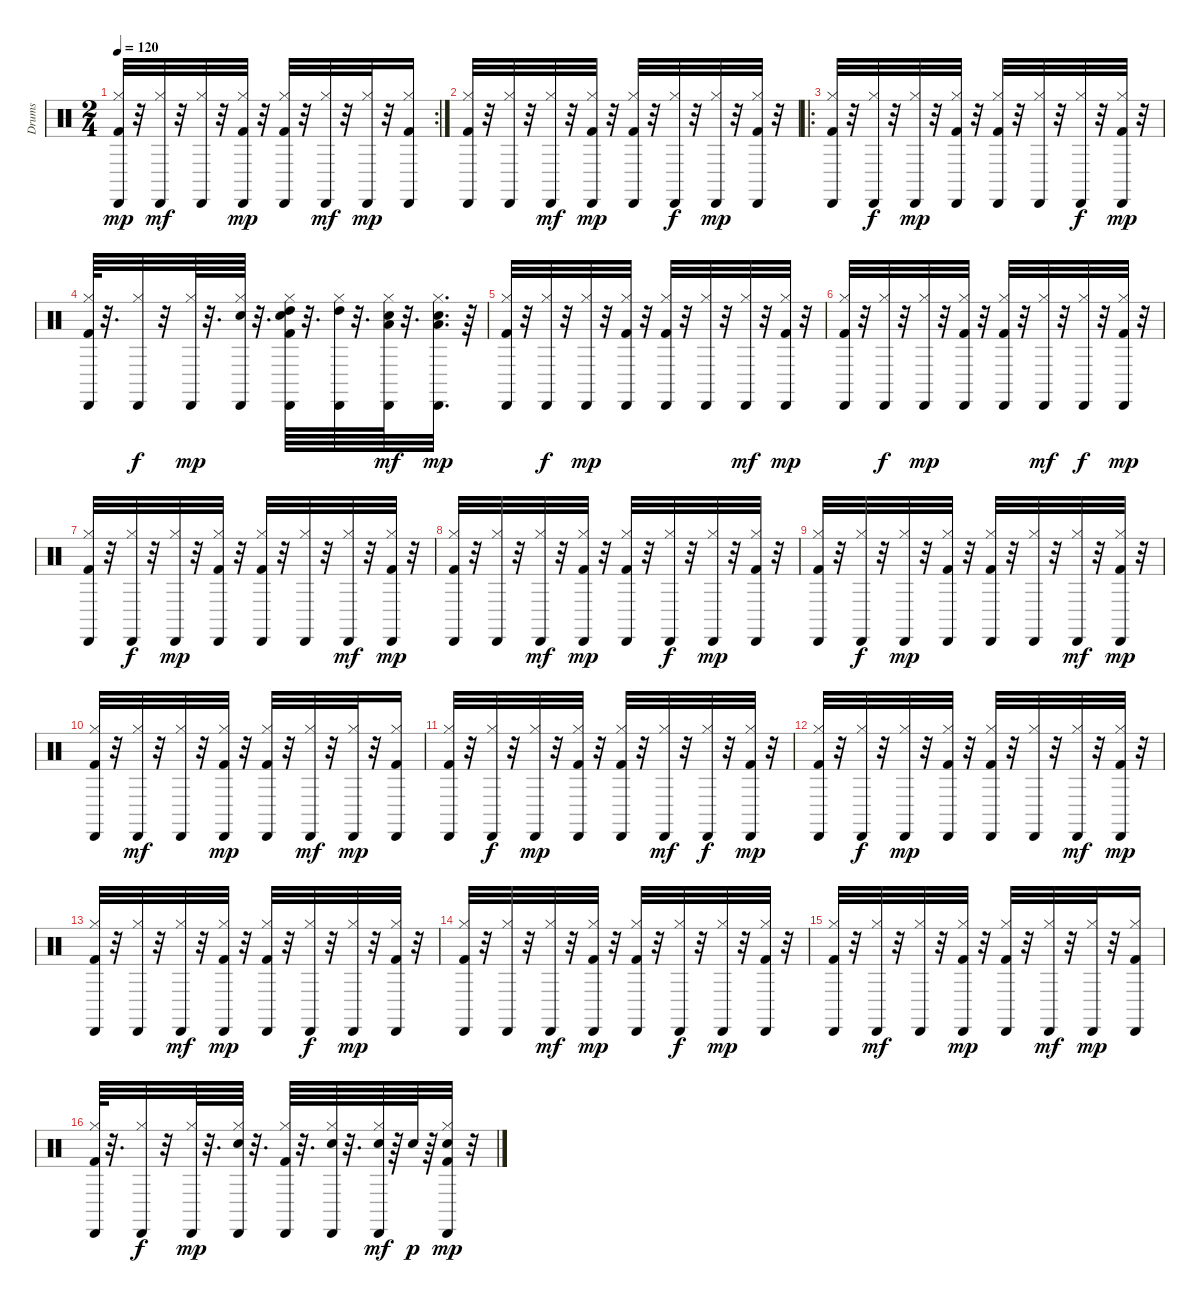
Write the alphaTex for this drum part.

\track ("Drums" "Drums") {instrument percussion}
\staff {score}
\articulation defaults
\rc 2
\ts (2 4)
\tempo 120
\clef neutral
\ks c
("Kick (hit) 2" "Hi-Hat (closed)" "Cabasa (hit)").32{dy mp} r.32 ("Hi-Hat (closed)" "Cabasa (hit)").32{dy mf} r.32 ("Hi-Hat (closed)" "Cabasa (hit)").32 r.32 ("Kick (hit) 2" "Hi-Hat (closed)" "Cabasa (hit)").32{dy mp} r.32 ("Kick (hit) 2" "Hi-Hat (closed)" "Cabasa (hit)").32 r.32 ("Hi-Hat (closed)" "Cabasa (hit)").32{dy mf} r.32 ("Hi-Hat (closed)" "Cabasa (hit)").32{dy mp} r.32 ("Kick (hit) 2" "Hi-Hat (closed)" "Cabasa (hit)").16 |
("Kick (hit) 2" "Hi-Hat (closed)" "Cabasa (hit)").32 r.32 ("Hi-Hat (closed)" "Cabasa (hit)").32 r.32 ("Hi-Hat (closed)" "Cabasa (hit)").32{dy mf} r.32 ("Kick (hit) 2" "Hi-Hat (closed)" "Cabasa (hit)").32{dy mp} r.32 ("Kick (hit) 2" "Hi-Hat (closed)" "Cabasa (hit)").32 r.32 ("Hi-Hat (closed)" "Cabasa (hit)").32{dy f} r.32 ("Hi-Hat (closed)" "Cabasa (hit)").32{dy mp} r.32 ("Kick (hit) 2" "Hi-Hat (closed)" "Cabasa (hit)").32 r.32 |
\ro
("Kick (hit) 2" "Hi-Hat (closed)" "Cabasa (hit)").32 r.32 ("Hi-Hat (closed)" "Cabasa (hit)").32{dy f} r.32 ("Hi-Hat (closed)" "Cabasa (hit)").32{dy mp} r.32 ("Kick (hit) 2" "Hi-Hat (closed)" "Cabasa (hit)").32 r.32 ("Kick (hit) 2" "Hi-Hat (closed)" "Cabasa (hit)").32 r.32 ("Hi-Hat (closed)" "Cabasa (hit)").32 r.32 ("Hi-Hat (closed)" "Cabasa (hit)").32{dy f} r.32 ("Kick (hit) 2" "Hi-Hat (closed)" "Cabasa (hit)").32{dy mp} r.32 |
("Kick (hit) 2" "Hi-Hat (closed)" "Cabasa (hit)").64 r.32{d} ("Hi-Hat (closed)" "Cabasa (hit)").32{dy f} r.32 ("Hi-Hat (closed)" "Cabasa (hit)").64{dy mp} r.32{d} ("Electric Snare (hit)" "Hi-Hat (closed)" "Cabasa (hit)").64 r.32{d} ("High Tom (hit)" "Electric Snare (hit)" "Kick (hit) 2" "Hi-Hat (closed)" "Cabasa (hit)").64 r.32{d} ("High Tom (hit)" "Hi-Hat (closed)" "Cabasa (hit)").64 r.32{d} ("Low Tom (hit)" "Electric Snare (hit)" "Hi-Hat (closed)" "Cabasa (hit)").64{dy mf} r.32{d} ("Low Tom (hit)" "Electric Snare (hit)" "Hi-Hat (closed)" "Cabasa (hit)").32{d dy mp} r.64 |
("Kick (hit) 2" "Hi-Hat (closed)" "Cabasa (hit)").32 r.32 ("Hi-Hat (closed)" "Cabasa (hit)").32{dy f} r.32 ("Hi-Hat (closed)" "Cabasa (hit)").32{dy mp} r.32 ("Kick (hit) 2" "Hi-Hat (closed)" "Cabasa (hit)").32 r.32 ("Kick (hit) 2" "Hi-Hat (closed)" "Cabasa (hit)").32 r.32 ("Hi-Hat (closed)" "Cabasa (hit)").32 r.32 ("Hi-Hat (closed)" "Cabasa (hit)").32{dy mf} r.32 ("Kick (hit) 2" "Hi-Hat (closed)" "Cabasa (hit)").32{dy mp} r.32 |
("Kick (hit) 2" "Hi-Hat (closed)" "Cabasa (hit)").32 r.32 ("Hi-Hat (closed)" "Cabasa (hit)").32{dy f} r.32 ("Hi-Hat (closed)" "Cabasa (hit)").32{dy mp} r.32 ("Kick (hit) 2" "Hi-Hat (closed)" "Cabasa (hit)").32 r.32 ("Kick (hit) 2" "Hi-Hat (closed)" "Cabasa (hit)").32 r.32 ("Hi-Hat (closed)" "Cabasa (hit)").32{dy mf} r.32 ("Hi-Hat (closed)" "Cabasa (hit)").32{dy f} r.32 ("Kick (hit) 2" "Hi-Hat (closed)" "Cabasa (hit)").32{dy mp} r.32 |
("Kick (hit) 2" "Hi-Hat (closed)" "Cabasa (hit)").32 r.32 ("Hi-Hat (closed)" "Cabasa (hit)").32{dy f} r.32 ("Hi-Hat (closed)" "Cabasa (hit)").32{dy mp} r.32 ("Kick (hit) 2" "Hi-Hat (closed)" "Cabasa (hit)").32 r.32 ("Kick (hit) 2" "Hi-Hat (closed)" "Cabasa (hit)").32 r.32 ("Hi-Hat (closed)" "Cabasa (hit)").32 r.32 ("Hi-Hat (closed)" "Cabasa (hit)").32{dy mf} r.32 ("Kick (hit) 2" "Hi-Hat (closed)" "Cabasa (hit)").32{dy mp} r.32 |
("Kick (hit) 2" "Hi-Hat (closed)" "Cabasa (hit)").32 r.32 ("Hi-Hat (closed)" "Cabasa (hit)").32 r.32 ("Hi-Hat (closed)" "Cabasa (hit)").32{dy mf} r.32 ("Kick (hit) 2" "Hi-Hat (closed)" "Cabasa (hit)").32{dy mp} r.32 ("Kick (hit) 2" "Hi-Hat (closed)" "Cabasa (hit)").32 r.32 ("Hi-Hat (closed)" "Cabasa (hit)").32{dy f} r.32 ("Hi-Hat (closed)" "Cabasa (hit)").32{dy mp} r.32 ("Kick (hit) 2" "Hi-Hat (closed)" "Cabasa (hit)").32 r.32 |
("Kick (hit) 2" "Hi-Hat (closed)" "Cabasa (hit)").32 r.32 ("Hi-Hat (closed)" "Cabasa (hit)").32{dy f} r.32 ("Hi-Hat (closed)" "Cabasa (hit)").32{dy mp} r.32 ("Kick (hit) 2" "Hi-Hat (closed)" "Cabasa (hit)").32 r.32 ("Kick (hit) 2" "Hi-Hat (closed)" "Cabasa (hit)").32 r.32 ("Hi-Hat (closed)" "Cabasa (hit)").32 r.32 ("Hi-Hat (closed)" "Cabasa (hit)").32{dy mf} r.32 ("Kick (hit) 2" "Hi-Hat (closed)" "Cabasa (hit)").32{dy mp} r.32 |
("Kick (hit) 2" "Hi-Hat (closed)" "Cabasa (hit)").32 r.32 ("Hi-Hat (closed)" "Cabasa (hit)").32{dy mf} r.32 ("Hi-Hat (closed)" "Cabasa (hit)").32 r.32 ("Kick (hit) 2" "Hi-Hat (closed)" "Cabasa (hit)").32{dy mp} r.32 ("Kick (hit) 2" "Hi-Hat (closed)" "Cabasa (hit)").32 r.32 ("Hi-Hat (closed)" "Cabasa (hit)").32{dy mf} r.32 ("Hi-Hat (closed)" "Cabasa (hit)").32{dy mp} r.32 ("Kick (hit) 2" "Hi-Hat (closed)" "Cabasa (hit)").16 |
("Kick (hit) 2" "Hi-Hat (closed)" "Cabasa (hit)").32 r.32 ("Hi-Hat (closed)" "Cabasa (hit)").32{dy f} r.32 ("Hi-Hat (closed)" "Cabasa (hit)").32{dy mp} r.32 ("Kick (hit) 2" "Hi-Hat (closed)" "Cabasa (hit)").32 r.32 ("Kick (hit) 2" "Hi-Hat (closed)" "Cabasa (hit)").32 r.32 ("Hi-Hat (closed)" "Cabasa (hit)").32{dy mf} r.32 ("Hi-Hat (closed)" "Cabasa (hit)").32{dy f} r.32 ("Kick (hit) 2" "Hi-Hat (closed)" "Cabasa (hit)").32{dy mp} r.32 |
("Kick (hit) 2" "Hi-Hat (closed)" "Cabasa (hit)").32 r.32 ("Hi-Hat (closed)" "Cabasa (hit)").32{dy f} r.32 ("Hi-Hat (closed)" "Cabasa (hit)").32{dy mp} r.32 ("Kick (hit) 2" "Hi-Hat (closed)" "Cabasa (hit)").32 r.32 ("Kick (hit) 2" "Hi-Hat (closed)" "Cabasa (hit)").32 r.32 ("Hi-Hat (closed)" "Cabasa (hit)").32 r.32 ("Hi-Hat (closed)" "Cabasa (hit)").32{dy mf} r.32 ("Kick (hit) 2" "Hi-Hat (closed)" "Cabasa (hit)").32{dy mp} r.32 |
("Kick (hit) 2" "Hi-Hat (closed)" "Cabasa (hit)").32 r.32 ("Hi-Hat (closed)" "Cabasa (hit)").32 r.32 ("Hi-Hat (closed)" "Cabasa (hit)").32{dy mf} r.32 ("Kick (hit) 2" "Hi-Hat (closed)" "Cabasa (hit)").32{dy mp} r.32 ("Kick (hit) 2" "Hi-Hat (closed)" "Cabasa (hit)").32 r.32 ("Hi-Hat (closed)" "Cabasa (hit)").32{dy f} r.32 ("Hi-Hat (closed)" "Cabasa (hit)").32{dy mp} r.32 ("Kick (hit) 2" "Hi-Hat (closed)" "Cabasa (hit)").32 r.32 |
("Kick (hit) 2" "Hi-Hat (closed)" "Cabasa (hit)").32 r.32 ("Hi-Hat (closed)" "Cabasa (hit)").32 r.32 ("Hi-Hat (closed)" "Cabasa (hit)").32{dy mf} r.32 ("Kick (hit) 2" "Hi-Hat (closed)" "Cabasa (hit)").32{dy mp} r.32 ("Kick (hit) 2" "Hi-Hat (closed)" "Cabasa (hit)").32 r.32 ("Hi-Hat (closed)" "Cabasa (hit)").32{dy f} r.32 ("Hi-Hat (closed)" "Cabasa (hit)").32{dy mp} r.32 ("Kick (hit) 2" "Hi-Hat (closed)" "Cabasa (hit)").32 r.32 |
("Kick (hit) 2" "Hi-Hat (closed)" "Cabasa (hit)").32 r.32 ("Hi-Hat (closed)" "Cabasa (hit)").32{dy mf} r.32 ("Hi-Hat (closed)" "Cabasa (hit)").32 r.32 ("Kick (hit) 2" "Hi-Hat (closed)" "Cabasa (hit)").32{dy mp} r.32 ("Kick (hit) 2" "Hi-Hat (closed)" "Cabasa (hit)").32 r.32 ("Hi-Hat (closed)" "Cabasa (hit)").32{dy mf} r.32 ("Hi-Hat (closed)" "Cabasa (hit)").32{dy mp} r.32 ("Kick (hit) 2" "Hi-Hat (closed)" "Cabasa (hit)").16 |
("Kick (hit) 2" "Hi-Hat (closed)" "Cabasa (hit)").64 r.32{d} ("Hi-Hat (closed)" "Cabasa (hit)").32{dy f} r.32 ("Hi-Hat (closed)" "Cabasa (hit)").64{dy mp} r.32{d} ("Electric Snare (hit)" "Hi-Hat (closed)" "Cabasa (hit)").64 r.32{d} ("Kick (hit) 2" "Hi-Hat (closed)" "Cabasa (hit)").64 r.32{d} ("Electric Snare (hit)" "Hi-Hat (closed)" "Cabasa (hit)").64 r.32{d} ("Electric Snare (hit)" "Hi-Hat (closed)" "Cabasa (hit)").64{dy mf} r.64 "Snare (hit) 2".64{dy p} r.64 ("Electric Snare (hit)" "Kick (hit) 2" "Hi-Hat (closed)" "Cabasa (hit)").32{dy mp} r.32
